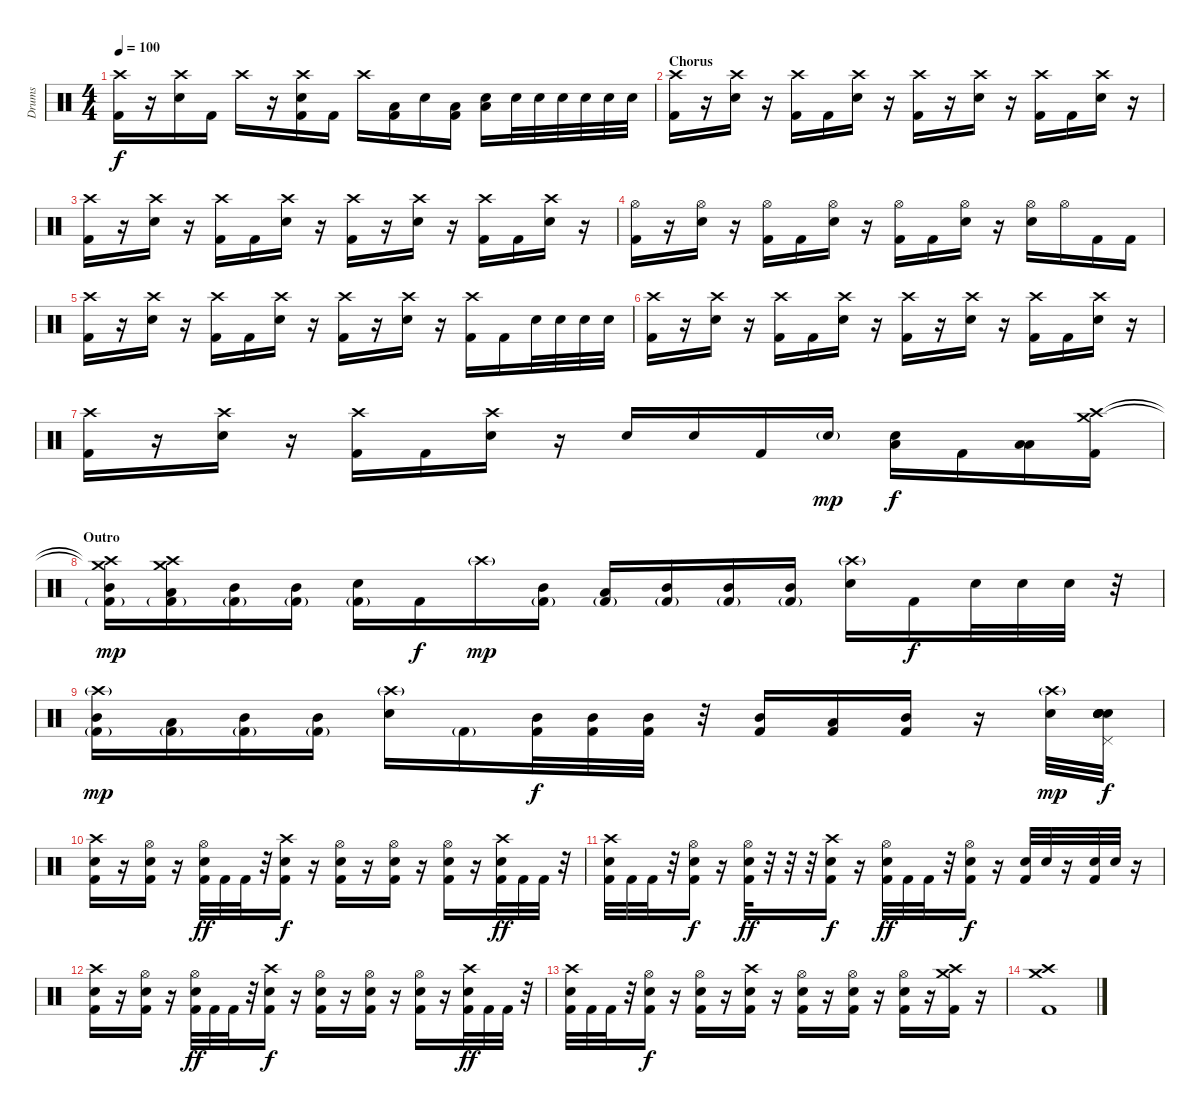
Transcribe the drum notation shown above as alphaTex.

\track ("Drums" "Drums") {instrument percussion}
\staff {score}
\articulation defaults
\ts (4 4)
\tempo 100
\clef neutral
\ks c
("Crash high (hit)" "Kick (hit) 2").16{dy f} r.16 ("Crash high (hit)" "Electric Snare (hit)").16 "Kick (hit) 2".16 "Crash high (hit)".16 r.16 ("Crash high (hit)" "Electric Snare (hit)" "Kick (hit) 2").16 "Kick (hit) 2".16 "Crash high (hit)".16 ("Low Tom (hit)" "Kick (hit) 2").16 "Electric Snare (hit)".16 ("Low Tom (hit)" "Kick (hit) 2").16 ("Low Tom (hit)" "Electric Snare (hit)").16 "Electric Snare (hit)".32 "Electric Snare (hit)".32 "Electric Snare (hit)".32 "Electric Snare (hit)".32 "Electric Snare (hit)".32 "Electric Snare (hit)".32 |
\section ("" "Chorus")
("Crash high (hit)" "Kick (hit) 2").16 r.16 ("Crash high (hit)" "Electric Snare (hit)").16 r.16 ("Crash high (hit)" "Kick (hit) 2").16 "Kick (hit) 2".16 ("Crash high (hit)" "Electric Snare (hit)").16 r.16 ("Crash high (hit)" "Kick (hit) 2").16 r.16 ("Crash high (hit)" "Electric Snare (hit)").16 r.16 ("Crash high (hit)" "Kick (hit) 2").16 "Kick (hit) 2".16 ("Crash high (hit)" "Electric Snare (hit)").16 r.16 |
("Crash high (hit)" "Kick (hit) 2").16 r.16 ("Crash high (hit)" "Electric Snare (hit)").16 r.16 ("Crash high (hit)" "Kick (hit) 2").16 "Kick (hit) 2".16 ("Crash high (hit)" "Electric Snare (hit)").16 r.16 ("Crash high (hit)" "Kick (hit) 2").16 r.16 ("Crash high (hit)" "Electric Snare (hit)").16 r.16 ("Crash high (hit)" "Kick (hit) 2").16 "Kick (hit) 2".16 ("Crash high (hit)" "Electric Snare (hit)").16 r.16 |
("Hi-Hat (open)" "Kick (hit) 2").16 r.16 ("Hi-Hat (open)" "Electric Snare (hit)").16 r.16 ("Hi-Hat (open)" "Kick (hit) 2").16 "Kick (hit) 2".16 ("Hi-Hat (open)" "Electric Snare (hit)").16 r.16 ("Hi-Hat (open)" "Kick (hit) 2").16 "Kick (hit) 2".16 ("Hi-Hat (open)" "Electric Snare (hit)").16 r.16 ("Hi-Hat (open)" "Electric Snare (hit)").16 "Hi-Hat (open)".16 "Kick (hit) 2".16 "Kick (hit) 2".16 |
("Crash high (hit)" "Kick (hit) 2").16 r.16 ("Crash high (hit)" "Electric Snare (hit)").16 r.16 ("Crash high (hit)" "Kick (hit) 2").16 "Kick (hit) 2".16 ("Crash high (hit)" "Electric Snare (hit)").16 r.16 ("Crash high (hit)" "Kick (hit) 2").16 r.16 ("Crash high (hit)" "Electric Snare (hit)").16 r.16 ("Crash high (hit)" "Kick (hit) 2").16 "Kick (hit) 2".16 "Electric Snare (hit)".32 "Electric Snare (hit)".32 "Electric Snare (hit)".32 "Electric Snare (hit)".32 |
("Crash high (hit)" "Kick (hit) 2").16 r.16 ("Crash high (hit)" "Electric Snare (hit)").16 r.16 ("Crash high (hit)" "Kick (hit) 2").16 "Kick (hit) 2".16 ("Crash high (hit)" "Electric Snare (hit)").16 r.16 ("Crash high (hit)" "Kick (hit) 2").16 r.16 ("Crash high (hit)" "Electric Snare (hit)").16 r.16 ("Crash high (hit)" "Kick (hit) 2").16 "Kick (hit) 2".16 ("Crash high (hit)" "Electric Snare (hit)").16 r.16 |
("Crash high (hit)" "Kick (hit) 2").16 r.16 ("Crash high (hit)" "Electric Snare (hit)").16 r.16 ("Crash high (hit)" "Kick (hit) 2").16 "Kick (hit) 2".16 ("Crash high (hit)" "Electric Snare (hit)").16 r.16 "Electric Snare (hit)".16 "Electric Snare (hit)".16 "Kick (hit) 2".16 "Electric Snare (hit)"{g}.16{dy mp} ("Low Tom (hit)" "Electric Snare (hit)").16{dy f} "Kick (hit) 2".16 ("Low Tom (hit)" "Low Tom (hit)").16 ("Crash medium (hit)" "Crash high (hit)" "Kick (hit) 2").16 |
\section ("" "Outro")
("Crash medium (hit)"{t} "Crash high (hit)"{t} "Mid Tom (hit)" "Kick (hit) 2"{g}).16{dy mp} ("Crash medium (hit)"{x} "Crash high (hit)"{x} "Low Tom (hit)" "Kick (hit) 2"{g}).16 ("Mid Tom (hit)" "Kick (hit) 2"{g}).16 ("Mid Tom (hit)" "Kick (hit) 2"{g}).16 ("Electric Snare (hit)" "Kick (hit) 2"{g}).16 "Kick (hit) 2".16{dy f} "Crash high (hit)"{g}.16{dy mp} ("Mid Tom (hit)" "Kick (hit) 2"{g}).16 ("Low Tom (hit)" "Kick (hit) 2"{g}).16 ("Mid Tom (hit)" "Kick (hit) 2"{g}).16 ("Mid Tom (hit)" "Kick (hit) 2"{g}).16 ("Mid Tom (hit)" "Kick (hit) 2"{g}).16 ("Crash high (hit)"{g} "Electric Snare (hit)").16 "Kick (hit) 2".16{dy f} "Electric Snare (hit)".32 "Electric Snare (hit)".32 "Electric Snare (hit)".32 r.32 |
("Crash high (hit)"{g} "Mid Tom (hit)" "Kick (hit) 2"{g}).16{dy mp} ("Low Tom (hit)" "Kick (hit) 2"{g}).16 ("Mid Tom (hit)" "Kick (hit) 2"{g}).16 ("Mid Tom (hit)" "Kick (hit) 2"{g}).16 ("Crash high (hit)"{g} "Electric Snare (hit)").16 "Kick (hit) 2"{g}.16 ("Mid Tom (hit)" "Kick (hit) 2").32{dy f} ("Mid Tom (hit)" "Kick (hit) 2").32 ("Mid Tom (hit)" "Kick (hit) 2").32 r.32 ("Mid Tom (hit)" "Kick (hit) 2").16 ("Low Tom (hit)" "Kick (hit) 2").16 ("Mid Tom (hit)" "Kick (hit) 2").16 r.16 ("Crash high (hit)"{g} "Electric Snare (hit)").32{dy mp} ("Snare (hit)"{x} "Snare (hit)"{x} "Snare (hit)"{x} "Pedal Hi-Hat (hit)"{x} "Snare (hit)"{x} "Snare (hit)"{x}).32{dy f} |
("Crash high (hit)" "Electric Snare (hit)" "Kick (hit) 2").16 r.16 ("Hi-Hat (open)" "Electric Snare (hit)" "Kick (hit) 2").16 r.16 ("Hi-Hat (open)" "Electric Snare (hit)" "Kick (hit) 2").32{dy ff} "Kick (hit) 2".32 "Kick (hit) 2".32 r.32 ("Crash high (hit)" "Electric Snare (hit)" "Kick (hit) 2").16{dy f} r.16 ("Hi-Hat (open)" "Electric Snare (hit)" "Kick (hit) 2").16 r.16 ("Hi-Hat (open)" "Electric Snare (hit)" "Kick (hit) 2").16 r.16 ("Hi-Hat (open)" "Electric Snare (hit)" "Kick (hit) 2").16 r.16 ("Crash high (hit)" "Electric Snare (hit)" "Kick (hit) 2").32{dy ff} "Kick (hit) 2".32 "Kick (hit) 2".32 r.32 |
("Crash high (hit)" "Electric Snare (hit)" "Kick (hit) 2").32 "Kick (hit) 2".32 "Kick (hit) 2".32 r.32 ("Hi-Hat (open)" "Electric Snare (hit)" "Kick (hit) 2").16{dy f} r.16 ("Hi-Hat (open)" "Electric Snare (hit)" "Kick (hit) 2").32{dy ff} r.32 r.32 r.32 ("Crash high (hit)" "Electric Snare (hit)" "Kick (hit) 2").16{dy f} r.16 ("Hi-Hat (open)" "Electric Snare (hit)" "Kick (hit) 2").32{dy ff} "Kick (hit) 2".32 "Kick (hit) 2".32 r.32 ("Hi-Hat (open)" "Electric Snare (hit)" "Kick (hit) 2").16{dy f} r.16 ("Electric Snare (hit)" "Kick (hit) 2").32 "Electric Snare (hit)".32 r.16 ("Electric Snare (hit)" "Kick (hit) 2").32 "Electric Snare (hit)".32 r.16 |
("Crash high (hit)" "Electric Snare (hit)" "Kick (hit) 2").16 r.16 ("Hi-Hat (open)" "Electric Snare (hit)" "Kick (hit) 2").16 r.16 ("Hi-Hat (open)" "Electric Snare (hit)" "Kick (hit) 2").32{dy ff} "Kick (hit) 2".32 "Kick (hit) 2".32 r.32 ("Crash high (hit)" "Electric Snare (hit)" "Kick (hit) 2").16{dy f} r.16 ("Hi-Hat (open)" "Electric Snare (hit)" "Kick (hit) 2").16 r.16 ("Hi-Hat (open)" "Electric Snare (hit)" "Kick (hit) 2").16 r.16 ("Hi-Hat (open)" "Electric Snare (hit)" "Kick (hit) 2").16 r.16 ("Crash high (hit)" "Electric Snare (hit)" "Kick (hit) 2").32{dy ff} "Kick (hit) 2".32 "Kick (hit) 2".32 r.32 |
("Crash high (hit)" "Electric Snare (hit)" "Kick (hit) 2").32 "Kick (hit) 2".32 "Kick (hit) 2".32 r.32 ("Hi-Hat (open)" "Electric Snare (hit)" "Kick (hit) 2").16{dy f} r.16 ("Hi-Hat (open)" "Electric Snare (hit)" "Kick (hit) 2").16 r.16 ("Crash high (hit)" "Electric Snare (hit)" "Kick (hit) 2").16 r.16 ("Hi-Hat (open)" "Electric Snare (hit)" "Kick (hit) 2").16 r.16 ("Hi-Hat (open)" "Electric Snare (hit)" "Kick (hit) 2").16 r.16 ("Hi-Hat (open)" "Electric Snare (hit)" "Kick (hit) 2").16 r.16 ("Crash medium (hit)" "Crash high (hit)" "Kick (hit) 2").16 r.16 |
("Crash high (hit)" "Crash medium (hit)" "Kick (hit) 2").1
